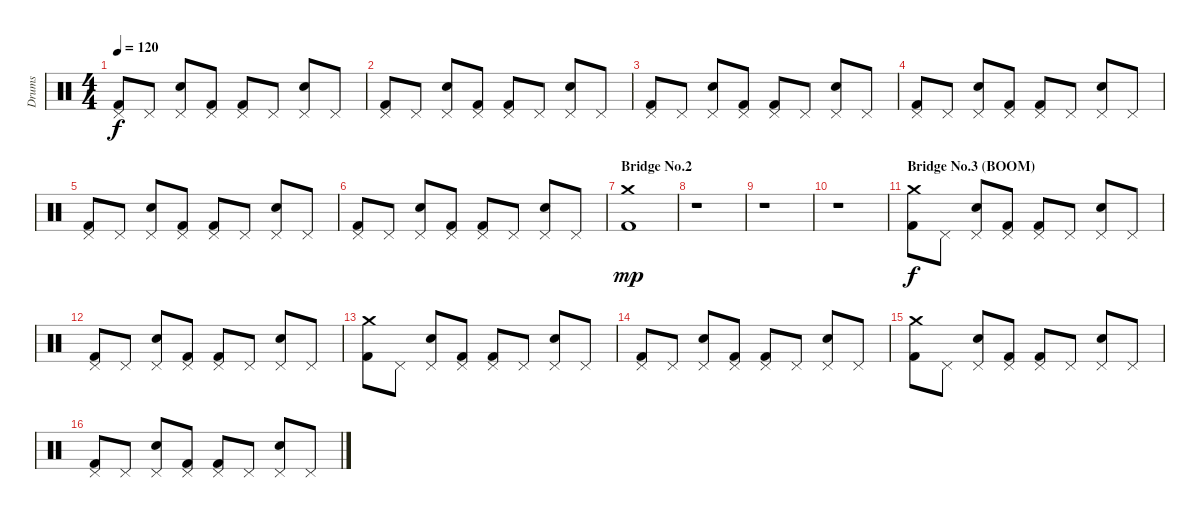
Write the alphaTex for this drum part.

\track ("Drums" "Drums") {instrument percussion}
\staff {score}
\articulation defaults
\ts (4 4)
\tempo 120
\clef neutral
\ks c
("Pedal Hi-Hat (hit)" "Kick (hit) 2").8{dy f} "Pedal Hi-Hat (hit)".8 ("Pedal Hi-Hat (hit)" "Electric Snare (hit)").8 ("Pedal Hi-Hat (hit)" "Kick (hit) 2").8 ("Pedal Hi-Hat (hit)" "Kick (hit) 2").8 "Pedal Hi-Hat (hit)".8 ("Pedal Hi-Hat (hit)" "Electric Snare (hit)").8 "Pedal Hi-Hat (hit)".8 |
("Pedal Hi-Hat (hit)" "Kick (hit) 2").8 "Pedal Hi-Hat (hit)".8 ("Pedal Hi-Hat (hit)" "Electric Snare (hit)").8 ("Pedal Hi-Hat (hit)" "Kick (hit) 2").8 ("Pedal Hi-Hat (hit)" "Kick (hit) 2").8 "Pedal Hi-Hat (hit)".8 ("Pedal Hi-Hat (hit)" "Electric Snare (hit)").8 "Pedal Hi-Hat (hit)".8 |
("Pedal Hi-Hat (hit)" "Kick (hit) 2").8 "Pedal Hi-Hat (hit)".8 ("Pedal Hi-Hat (hit)" "Electric Snare (hit)").8 ("Pedal Hi-Hat (hit)" "Kick (hit) 2").8 ("Pedal Hi-Hat (hit)" "Kick (hit) 2").8 "Pedal Hi-Hat (hit)".8 ("Pedal Hi-Hat (hit)" "Electric Snare (hit)").8 "Pedal Hi-Hat (hit)".8 |
("Pedal Hi-Hat (hit)" "Kick (hit) 2").8 "Pedal Hi-Hat (hit)".8 ("Pedal Hi-Hat (hit)" "Electric Snare (hit)").8 ("Pedal Hi-Hat (hit)" "Kick (hit) 2").8 ("Pedal Hi-Hat (hit)" "Kick (hit) 2").8 "Pedal Hi-Hat (hit)".8 ("Pedal Hi-Hat (hit)" "Electric Snare (hit)").8 "Pedal Hi-Hat (hit)".8 |
("Pedal Hi-Hat (hit)" "Kick (hit) 2").8 "Pedal Hi-Hat (hit)".8 ("Pedal Hi-Hat (hit)" "Electric Snare (hit)").8 ("Pedal Hi-Hat (hit)" "Kick (hit) 2").8 ("Pedal Hi-Hat (hit)" "Kick (hit) 2").8 "Pedal Hi-Hat (hit)".8 ("Pedal Hi-Hat (hit)" "Electric Snare (hit)").8 "Pedal Hi-Hat (hit)".8 |
("Pedal Hi-Hat (hit)" "Kick (hit) 2").8 "Pedal Hi-Hat (hit)".8 ("Pedal Hi-Hat (hit)" "Electric Snare (hit)").8 ("Pedal Hi-Hat (hit)" "Kick (hit) 2").8 ("Pedal Hi-Hat (hit)" "Kick (hit) 2").8 "Pedal Hi-Hat (hit)".8 ("Pedal Hi-Hat (hit)" "Electric Snare (hit)").8 "Pedal Hi-Hat (hit)".8 |
\section ("" "Bridge No.2")
("Crash medium (hit)" "Kick (hit) 2").1{dy mp} |
r.1 |
r.1 |
r.1 |
\section ("" "Bridge No.3 (BOOM)")
("Crash medium (hit)" "Kick (hit) 2").8{dy f} "Pedal Hi-Hat (hit)".8 ("Pedal Hi-Hat (hit)" "Electric Snare (hit)").8 ("Pedal Hi-Hat (hit)" "Kick (hit) 2").8 ("Pedal Hi-Hat (hit)" "Kick (hit) 2").8 "Pedal Hi-Hat (hit)".8 ("Pedal Hi-Hat (hit)" "Electric Snare (hit)").8 "Pedal Hi-Hat (hit)".8 |
("Pedal Hi-Hat (hit)" "Kick (hit) 2").8 "Pedal Hi-Hat (hit)".8 ("Pedal Hi-Hat (hit)" "Electric Snare (hit)").8 ("Pedal Hi-Hat (hit)" "Kick (hit) 2").8 ("Pedal Hi-Hat (hit)" "Kick (hit) 2").8 "Pedal Hi-Hat (hit)".8 ("Pedal Hi-Hat (hit)" "Electric Snare (hit)").8 "Pedal Hi-Hat (hit)".8 |
("Crash medium (hit)" "Kick (hit) 2").8 "Pedal Hi-Hat (hit)".8 ("Pedal Hi-Hat (hit)" "Electric Snare (hit)").8 ("Pedal Hi-Hat (hit)" "Kick (hit) 2").8 ("Pedal Hi-Hat (hit)" "Kick (hit) 2").8 "Pedal Hi-Hat (hit)".8 ("Pedal Hi-Hat (hit)" "Electric Snare (hit)").8 "Pedal Hi-Hat (hit)".8 |
("Pedal Hi-Hat (hit)" "Kick (hit) 2").8 "Pedal Hi-Hat (hit)".8 ("Pedal Hi-Hat (hit)" "Electric Snare (hit)").8 ("Pedal Hi-Hat (hit)" "Kick (hit) 2").8 ("Pedal Hi-Hat (hit)" "Kick (hit) 2").8 "Pedal Hi-Hat (hit)".8 ("Pedal Hi-Hat (hit)" "Electric Snare (hit)").8 "Pedal Hi-Hat (hit)".8 |
("Crash medium (hit)" "Kick (hit) 2").8 "Pedal Hi-Hat (hit)".8 ("Pedal Hi-Hat (hit)" "Electric Snare (hit)").8 ("Pedal Hi-Hat (hit)" "Kick (hit) 2").8 ("Pedal Hi-Hat (hit)" "Kick (hit) 2").8 "Pedal Hi-Hat (hit)".8 ("Pedal Hi-Hat (hit)" "Electric Snare (hit)").8 "Pedal Hi-Hat (hit)".8 |
("Pedal Hi-Hat (hit)" "Kick (hit) 2").8 "Pedal Hi-Hat (hit)".8 ("Pedal Hi-Hat (hit)" "Electric Snare (hit)").8 ("Pedal Hi-Hat (hit)" "Kick (hit) 2").8 ("Pedal Hi-Hat (hit)" "Kick (hit) 2").8 "Pedal Hi-Hat (hit)".8 ("Pedal Hi-Hat (hit)" "Electric Snare (hit)").8 "Pedal Hi-Hat (hit)".8
